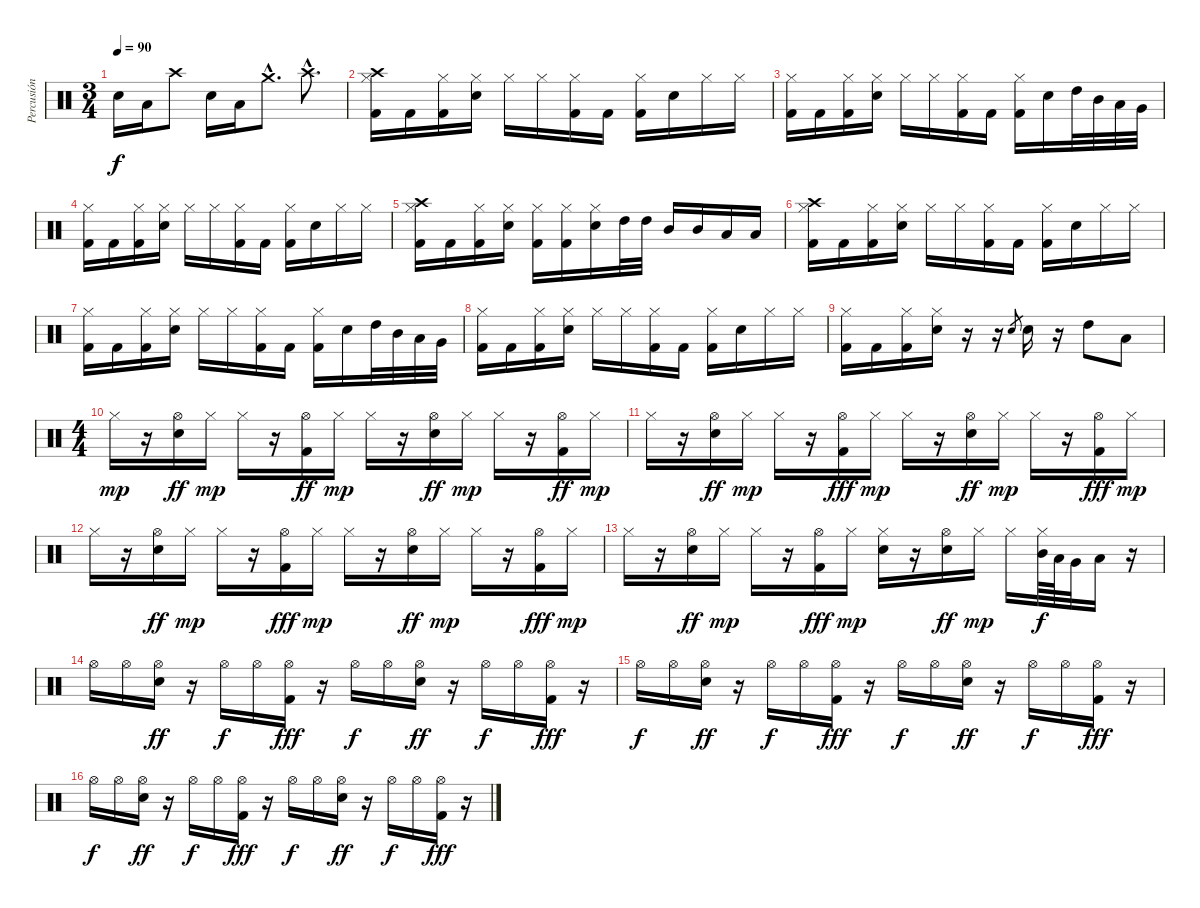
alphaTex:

\track ("Percusión" "Percusión") {instrument percussion}
\staff {score}
\articulation defaults
\ts (3 4)
\tempo 90
\clef neutral
\ks c "Electric Snare (hit)".16{dy f} "Low Tom (hit)".16 "Crash high (hit)".8 "Electric Snare (hit)".16 "Low Tom (hit)".16 "Crash medium (hit)"{hac}.8{d} "Crash high (hit)"{hac}.8{d}
|
("Crash high (hit)" "Hi-Hat (closed)" "Kick (hit) 2").16 "Kick (hit) 2".16 ("Hi-Hat (closed)" "Kick (hit) 2").16 ("Hi-Hat (closed)" "Electric Snare (hit)").16 "Hi-Hat (closed)".16 "Hi-Hat (closed)".16 ("Hi-Hat (closed)" "Kick (hit) 2").16 "Kick (hit) 2".16 ("Hi-Hat (closed)" "Kick (hit) 2").16 "Electric Snare (hit)".16 "Hi-Hat (closed)".16 "Hi-Hat (closed)".16 |
("Hi-Hat (closed)" "Kick (hit) 2").16 "Kick (hit) 2".16 ("Hi-Hat (closed)" "Kick (hit) 2").16 ("Hi-Hat (closed)" "Electric Snare (hit)").16 "Hi-Hat (closed)".16 "Hi-Hat (closed)".16 ("Hi-Hat (closed)" "Kick (hit) 2").16 "Kick (hit) 2".16 ("Hi-Hat (closed)" "Kick (hit) 2").16 "Electric Snare (hit)".16 "High Tom (hit)".32 "Mid Tom (hit)".32 "Low Tom (hit)".32 "Very Low Tom (hit)".32 |
("Hi-Hat (closed)" "Kick (hit) 2").16 "Kick (hit) 2".16 ("Hi-Hat (closed)" "Kick (hit) 2").16 ("Hi-Hat (closed)" "Electric Snare (hit)").16 "Hi-Hat (closed)".16 "Hi-Hat (closed)".16 ("Hi-Hat (closed)" "Kick (hit) 2").16 "Kick (hit) 2".16 ("Hi-Hat (closed)" "Kick (hit) 2").16 "Electric Snare (hit)".16 "Hi-Hat (closed)".16 "Hi-Hat (closed)".16 |
("Crash high (hit)" "Hi-Hat (closed)" "Kick (hit) 2").16 "Kick (hit) 2".16 ("Hi-Hat (closed)" "Kick (hit) 2").16 ("Hi-Hat (closed)" "Electric Snare (hit)").16 ("Hi-Hat (closed)" "Kick (hit) 2").16 ("Hi-Hat (closed)" "Kick (hit) 2").16 ("Hi-Hat (closed)" "Electric Snare (hit)").16 "High Tom (hit)".32 "High Tom (hit)".32 "Mid Tom (hit)".16 "Mid Tom (hit)".16 "Low Tom (hit)".16 "Low Tom (hit)".16 |
("Crash high (hit)" "Hi-Hat (closed)" "Kick (hit) 2").16 "Kick (hit) 2".16 ("Hi-Hat (closed)" "Kick (hit) 2").16 ("Hi-Hat (closed)" "Electric Snare (hit)").16 "Hi-Hat (closed)".16 "Hi-Hat (closed)".16 ("Hi-Hat (closed)" "Kick (hit) 2").16 "Kick (hit) 2".16 ("Hi-Hat (closed)" "Kick (hit) 2").16 "Electric Snare (hit)".16 "Hi-Hat (closed)".16 "Hi-Hat (closed)".16 |
("Hi-Hat (closed)" "Kick (hit) 2").16 "Kick (hit) 2".16 ("Hi-Hat (closed)" "Kick (hit) 2").16 ("Hi-Hat (closed)" "Electric Snare (hit)").16 "Hi-Hat (closed)".16 "Hi-Hat (closed)".16 ("Hi-Hat (closed)" "Kick (hit) 2").16 "Kick (hit) 2".16 ("Hi-Hat (closed)" "Kick (hit) 2").16 "Electric Snare (hit)".16 "High Tom (hit)".32 "Mid Tom (hit)".32 "Low Tom (hit)".32 "Very Low Tom (hit)".32 |
("Hi-Hat (closed)" "Kick (hit) 2").16 "Kick (hit) 2".16 ("Hi-Hat (closed)" "Kick (hit) 2").16 ("Hi-Hat (closed)" "Electric Snare (hit)").16 "Hi-Hat (closed)".16 "Hi-Hat (closed)".16 ("Hi-Hat (closed)" "Kick (hit) 2").16 "Kick (hit) 2".16 ("Hi-Hat (closed)" "Kick (hit) 2").16 "Electric Snare (hit)".16 "Hi-Hat (closed)".16 "Hi-Hat (closed)".16 |
("Hi-Hat (closed)" "Kick (hit) 2").16 "Kick (hit) 2".16 ("Hi-Hat (closed)" "Kick (hit) 2").16 ("Hi-Hat (closed)" "Electric Snare (hit)").16 r.16 r.16 "Electric Snare (hit)"{h}.8{gr} "Electric Snare (hit)".16 r.16 "High Tom (hit)".8 "Low Tom (hit)".8 |
\ts (4 4)
"Hi-Hat (closed)".16{dy mp} r.16 ("Hi-Hat (open)" "Electric Snare (hit)").16{dy ff} "Hi-Hat (closed)".16{dy mp} "Hi-Hat (closed)".16 r.16 ("Hi-Hat (open)" "Kick (hit) 2").16{dy ff} "Hi-Hat (closed)".16{dy mp} "Hi-Hat (closed)".16 r.16 ("Hi-Hat (open)" "Electric Snare (hit)").16{dy ff} "Hi-Hat (closed)".16{dy mp} "Hi-Hat (closed)".16 r.16 ("Hi-Hat (open)" "Kick (hit) 2").16{dy ff} "Hi-Hat (closed)".16{dy mp} |
"Hi-Hat (closed)".16 r.16 ("Hi-Hat (open)" "Electric Snare (hit)").16{dy ff} "Hi-Hat (closed)".16{dy mp} "Hi-Hat (closed)".16 r.16 ("Hi-Hat (open)" "Kick (hit) 2").16{dy fff} "Hi-Hat (closed)".16{dy mp} "Hi-Hat (closed)".16 r.16 ("Hi-Hat (open)" "Electric Snare (hit)").16{dy ff} "Hi-Hat (closed)".16{dy mp} "Hi-Hat (closed)".16 r.16 ("Hi-Hat (open)" "Kick (hit) 2").16{dy fff} "Hi-Hat (closed)".16{dy mp} |
"Hi-Hat (closed)".16 r.16 ("Hi-Hat (open)" "Electric Snare (hit)").16{dy ff} "Hi-Hat (closed)".16{dy mp} "Hi-Hat (closed)".16 r.16 ("Hi-Hat (open)" "Kick (hit) 2").16{dy fff} "Hi-Hat (closed)".16{dy mp} "Hi-Hat (closed)".16 r.16 ("Hi-Hat (open)" "Electric Snare (hit)").16{dy ff} "Hi-Hat (closed)".16{dy mp} "Hi-Hat (closed)".16 r.16 ("Hi-Hat (open)" "Kick (hit) 2").16{dy fff} "Hi-Hat (closed)".16{dy mp} |
"Hi-Hat (closed)".16 r.16 ("Hi-Hat (open)" "Electric Snare (hit)").16{dy ff} "Hi-Hat (closed)".16{dy mp} "Hi-Hat (closed)".16 r.16 ("Hi-Hat (open)" "Kick (hit) 2").16{dy fff} "Hi-Hat (closed)".16{dy mp} ("Hi-Hat (closed)" "Electric Snare (hit)").16 r.16 ("Hi-Hat (open)" "Electric Snare (hit)").16{dy ff} "Hi-Hat (closed)".16{dy mp} "Hi-Hat (closed)".16 ("Hi-Hat (closed)" "Mid Tom (hit)").64{dy f} "Low Tom (hit)".64 "Very Low Tom (hit)".32 "Low Floor Tom (hit)".16 r.16 |
"Hi-Hat (open)".16 "Hi-Hat (open)".16 ("Hi-Hat (open)" "Electric Snare (hit)").16{dy ff} r.16 "Hi-Hat (open)".16{dy f} "Hi-Hat (open)".16 ("Hi-Hat (open)" "Kick (hit) 2").16{dy fff} r.16 "Hi-Hat (open)".16{dy f} "Hi-Hat (open)".16 ("Hi-Hat (open)" "Electric Snare (hit)").16{dy ff} r.16 "Hi-Hat (open)".16{dy f} "Hi-Hat (open)".16 ("Hi-Hat (open)" "Kick (hit) 2").16{dy fff} r.16 |
"Hi-Hat (open)".16{dy f} "Hi-Hat (open)".16 ("Hi-Hat (open)" "Electric Snare (hit)").16{dy ff} r.16 "Hi-Hat (open)".16{dy f} "Hi-Hat (open)".16 ("Hi-Hat (open)" "Kick (hit) 2").16{dy fff} r.16 "Hi-Hat (open)".16{dy f} "Hi-Hat (open)".16 ("Hi-Hat (open)" "Electric Snare (hit)").16{dy ff} r.16 "Hi-Hat (open)".16{dy f} "Hi-Hat (open)".16 ("Hi-Hat (open)" "Kick (hit) 2").16{dy fff} r.16 |
"Hi-Hat (open)".16{dy f} "Hi-Hat (open)".16 ("Hi-Hat (open)" "Electric Snare (hit)").16{dy ff} r.16 "Hi-Hat (open)".16{dy f} "Hi-Hat (open)".16 ("Hi-Hat (open)" "Kick (hit) 2").16{dy fff} r.16 "Hi-Hat (open)".16{dy f} "Hi-Hat (open)".16 ("Hi-Hat (open)" "Electric Snare (hit)").16{dy ff} r.16 "Hi-Hat (open)".16{dy f} "Hi-Hat (open)".16 ("Hi-Hat (open)" "Kick (hit) 2").16{dy fff} r.16
